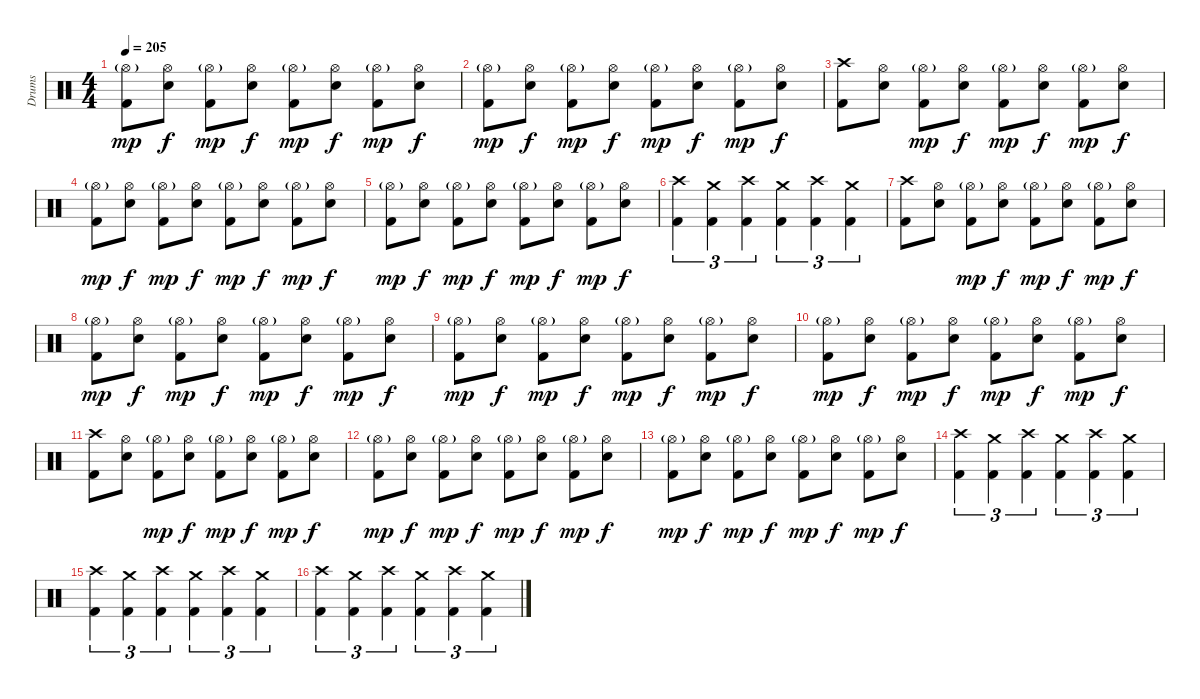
\track ("Drums" "Drums") {instrument percussion}
\staff {score}
\articulation defaults
\ts (4 4)
\tempo 205
\clef neutral
\ks c
("Hi-Hat (open)"{g} "Kick (hit) 2").8{dy mp} ("Hi-Hat (open)" "Electric Snare (hit)").8{dy f} ("Hi-Hat (open)"{g} "Kick (hit) 2").8{dy mp} ("Hi-Hat (open)" "Electric Snare (hit)").8{dy f} ("Hi-Hat (open)"{g} "Kick (hit) 2").8{dy mp} ("Hi-Hat (open)" "Electric Snare (hit)").8{dy f} ("Hi-Hat (open)"{g} "Kick (hit) 2").8{dy mp} ("Hi-Hat (open)" "Electric Snare (hit)").8{dy f} |
("Hi-Hat (open)"{g} "Kick (hit) 2").8{dy mp} ("Hi-Hat (open)" "Electric Snare (hit)").8{dy f} ("Hi-Hat (open)"{g} "Kick (hit) 2").8{dy mp} ("Hi-Hat (open)" "Electric Snare (hit)").8{dy f} ("Hi-Hat (open)"{g} "Kick (hit) 2").8{dy mp} ("Hi-Hat (open)" "Electric Snare (hit)").8{dy f} ("Hi-Hat (open)"{g} "Kick (hit) 2").8{dy mp} ("Hi-Hat (open)" "Electric Snare (hit)").8{dy f} |
("Crash high (hit)" "Kick (hit) 2").8 ("Hi-Hat (open)" "Electric Snare (hit)").8 ("Hi-Hat (open)"{g} "Kick (hit) 2").8{dy mp} ("Hi-Hat (open)" "Electric Snare (hit)").8{dy f} ("Hi-Hat (open)"{g} "Kick (hit) 2").8{dy mp} ("Hi-Hat (open)" "Electric Snare (hit)").8{dy f} ("Hi-Hat (open)"{g} "Kick (hit) 2").8{dy mp} ("Hi-Hat (open)" "Electric Snare (hit)").8{dy f} |
("Hi-Hat (open)"{g} "Kick (hit) 2").8{dy mp} ("Hi-Hat (open)" "Electric Snare (hit)").8{dy f} ("Hi-Hat (open)"{g} "Kick (hit) 2").8{dy mp} ("Hi-Hat (open)" "Electric Snare (hit)").8{dy f} ("Hi-Hat (open)"{g} "Kick (hit) 2").8{dy mp} ("Hi-Hat (open)" "Electric Snare (hit)").8{dy f} ("Hi-Hat (open)"{g} "Kick (hit) 2").8{dy mp} ("Hi-Hat (open)" "Electric Snare (hit)").8{dy f} |
("Hi-Hat (open)"{g} "Kick (hit) 2").8{dy mp} ("Hi-Hat (open)" "Electric Snare (hit)").8{dy f} ("Hi-Hat (open)"{g} "Kick (hit) 2").8{dy mp} ("Hi-Hat (open)" "Electric Snare (hit)").8{dy f} ("Hi-Hat (open)"{g} "Kick (hit) 2").8{dy mp} ("Hi-Hat (open)" "Electric Snare (hit)").8{dy f} ("Hi-Hat (open)"{g} "Kick (hit) 2").8{dy mp} ("Hi-Hat (open)" "Electric Snare (hit)").8{dy f} |
("Crash high (hit)" "Kick (hit) 2").4{tu (3 2)} ("Crash medium (hit)" "Kick (hit) 2").4{tu (3 2)} ("Crash high (hit)" "Kick (hit) 2").4{tu (3 2)} ("Crash medium (hit)" "Kick (hit) 2").4{tu (3 2)} ("Crash high (hit)" "Kick (hit) 2").4{tu (3 2)} ("Crash medium (hit)" "Kick (hit) 2").4{tu (3 2)} |
("Crash high (hit)" "Kick (hit) 2").8 ("Hi-Hat (open)" "Electric Snare (hit)").8 ("Hi-Hat (open)"{g} "Kick (hit) 2").8{dy mp} ("Hi-Hat (open)" "Electric Snare (hit)").8{dy f} ("Hi-Hat (open)"{g} "Kick (hit) 2").8{dy mp} ("Hi-Hat (open)" "Electric Snare (hit)").8{dy f} ("Hi-Hat (open)"{g} "Kick (hit) 2").8{dy mp} ("Hi-Hat (open)" "Electric Snare (hit)").8{dy f} |
("Hi-Hat (open)"{g} "Kick (hit) 2").8{dy mp} ("Hi-Hat (open)" "Electric Snare (hit)").8{dy f} ("Hi-Hat (open)"{g} "Kick (hit) 2").8{dy mp} ("Hi-Hat (open)" "Electric Snare (hit)").8{dy f} ("Hi-Hat (open)"{g} "Kick (hit) 2").8{dy mp} ("Hi-Hat (open)" "Electric Snare (hit)").8{dy f} ("Hi-Hat (open)"{g} "Kick (hit) 2").8{dy mp} ("Hi-Hat (open)" "Electric Snare (hit)").8{dy f} |
("Hi-Hat (open)"{g} "Kick (hit) 2").8{dy mp} ("Hi-Hat (open)" "Electric Snare (hit)").8{dy f} ("Hi-Hat (open)"{g} "Kick (hit) 2").8{dy mp} ("Hi-Hat (open)" "Electric Snare (hit)").8{dy f} ("Hi-Hat (open)"{g} "Kick (hit) 2").8{dy mp} ("Hi-Hat (open)" "Electric Snare (hit)").8{dy f} ("Hi-Hat (open)"{g} "Kick (hit) 2").8{dy mp} ("Hi-Hat (open)" "Electric Snare (hit)").8{dy f} |
("Hi-Hat (open)"{g} "Kick (hit) 2").8{dy mp} ("Hi-Hat (open)" "Electric Snare (hit)").8{dy f} ("Hi-Hat (open)"{g} "Kick (hit) 2").8{dy mp} ("Hi-Hat (open)" "Electric Snare (hit)").8{dy f} ("Hi-Hat (open)"{g} "Kick (hit) 2").8{dy mp} ("Hi-Hat (open)" "Electric Snare (hit)").8{dy f} ("Hi-Hat (open)"{g} "Kick (hit) 2").8{dy mp} ("Hi-Hat (open)" "Electric Snare (hit)").8{dy f} |
("Crash high (hit)" "Kick (hit) 2").8 ("Hi-Hat (open)" "Electric Snare (hit)").8 ("Hi-Hat (open)"{g} "Kick (hit) 2").8{dy mp} ("Hi-Hat (open)" "Electric Snare (hit)").8{dy f} ("Hi-Hat (open)"{g} "Kick (hit) 2").8{dy mp} ("Hi-Hat (open)" "Electric Snare (hit)").8{dy f} ("Hi-Hat (open)"{g} "Kick (hit) 2").8{dy mp} ("Hi-Hat (open)" "Electric Snare (hit)").8{dy f} |
("Hi-Hat (open)"{g} "Kick (hit) 2").8{dy mp} ("Hi-Hat (open)" "Electric Snare (hit)").8{dy f} ("Hi-Hat (open)"{g} "Kick (hit) 2").8{dy mp} ("Hi-Hat (open)" "Electric Snare (hit)").8{dy f} ("Hi-Hat (open)"{g} "Kick (hit) 2").8{dy mp} ("Hi-Hat (open)" "Electric Snare (hit)").8{dy f} ("Hi-Hat (open)"{g} "Kick (hit) 2").8{dy mp} ("Hi-Hat (open)" "Electric Snare (hit)").8{dy f} |
("Hi-Hat (open)"{g} "Kick (hit) 2").8{dy mp} ("Hi-Hat (open)" "Electric Snare (hit)").8{dy f} ("Hi-Hat (open)"{g} "Kick (hit) 2").8{dy mp} ("Hi-Hat (open)" "Electric Snare (hit)").8{dy f} ("Hi-Hat (open)"{g} "Kick (hit) 2").8{dy mp} ("Hi-Hat (open)" "Electric Snare (hit)").8{dy f} ("Hi-Hat (open)"{g} "Kick (hit) 2").8{dy mp} ("Hi-Hat (open)" "Electric Snare (hit)").8{dy f} |
("Crash high (hit)" "Kick (hit) 2").4{tu (3 2)} ("Crash medium (hit)" "Kick (hit) 2").4{tu (3 2)} ("Crash high (hit)" "Kick (hit) 2").4{tu (3 2)} ("Crash medium (hit)" "Kick (hit) 2").4{tu (3 2)} ("Crash high (hit)" "Kick (hit) 2").4{tu (3 2)} ("Crash medium (hit)" "Kick (hit) 2").4{tu (3 2)} |
("Crash high (hit)" "Kick (hit) 2").4{tu (3 2)} ("Crash medium (hit)" "Kick (hit) 2").4{tu (3 2)} ("Crash high (hit)" "Kick (hit) 2").4{tu (3 2)} ("Crash medium (hit)" "Kick (hit) 2").4{tu (3 2)} ("Crash high (hit)" "Kick (hit) 2").4{tu (3 2)} ("Crash medium (hit)" "Kick (hit) 2").4{tu (3 2)} |
("Crash high (hit)" "Kick (hit) 2").4{tu (3 2)} ("Crash medium (hit)" "Kick (hit) 2").4{tu (3 2)} ("Crash high (hit)" "Kick (hit) 2").4{tu (3 2)} ("Crash medium (hit)" "Kick (hit) 2").4{tu (3 2)} ("Crash high (hit)" "Kick (hit) 2").4{tu (3 2)} ("Crash medium (hit)" "Kick (hit) 2").4{tu (3 2)}
